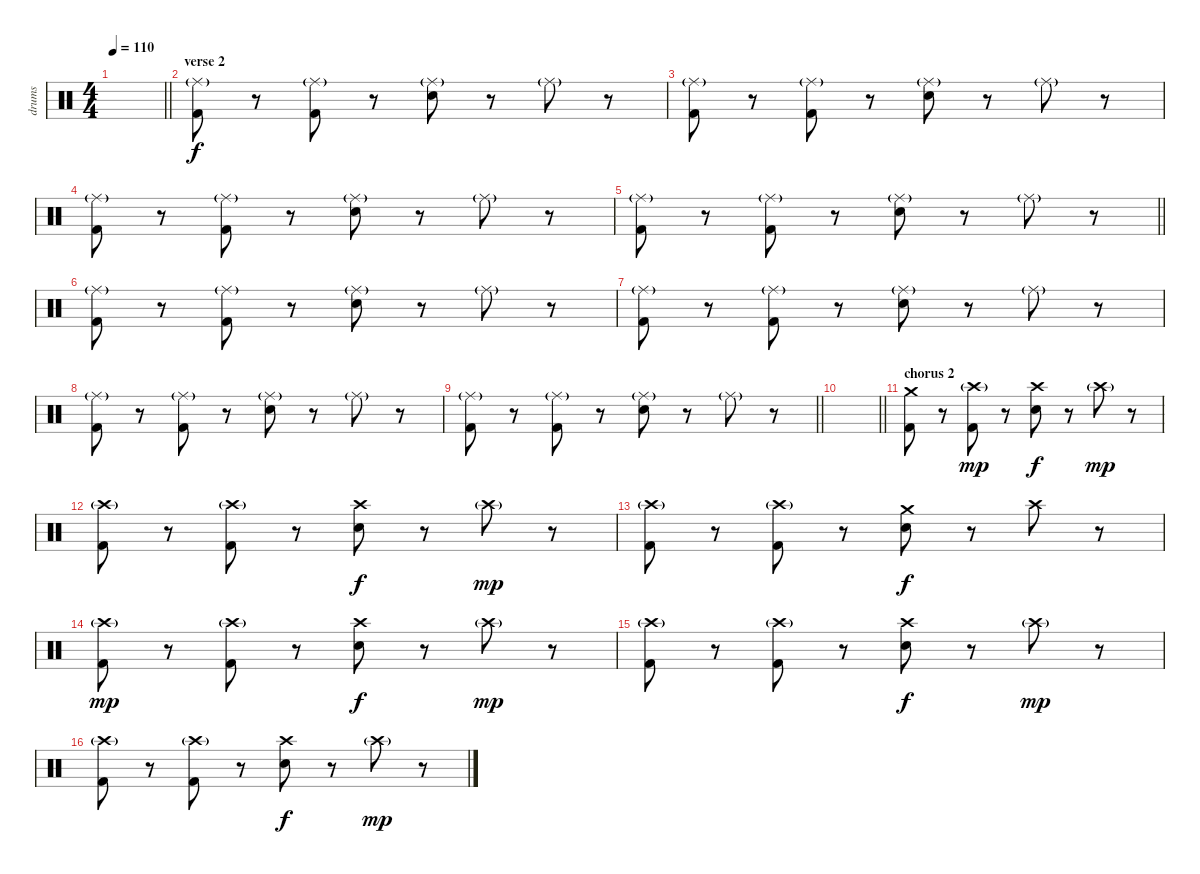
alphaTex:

\track ("drums" "drums") {instrument percussion}
\staff {score}
\articulation defaults
\ts (4 4)
\tempo 110
\clef neutral
\barLineRight lightlight
\ks c
|
\section ("" "verse 2")
("Kick (hit) 2" "Ride (middle)"{g}).8{volume 6} r.8 ("Kick (hit) 2" "Ride (middle)"{g}).8 r.8 ("Electric Snare (hit)" "Ride (middle)"{g}).8 r.8 "Ride (middle)"{g}.8 r.8 |
("Kick (hit) 2" "Ride (middle)"{g}).8 r.8 ("Kick (hit) 2" "Ride (middle)"{g}).8 r.8 ("Electric Snare (hit)" "Ride (middle)"{g}).8 r.8 "Ride (middle)"{g}.8 r.8 |
("Kick (hit) 2" "Ride (middle)"{g}).8 r.8 ("Kick (hit) 2" "Ride (middle)"{g}).8 r.8 ("Electric Snare (hit)" "Ride (middle)"{g}).8 r.8 "Ride (middle)"{g}.8 r.8 |
\barLineRight lightlight
("Kick (hit) 2" "Ride (middle)"{g}).8 r.8 ("Kick (hit) 2" "Ride (middle)"{g}).8 r.8 ("Electric Snare (hit)" "Ride (middle)"{g}).8 r.8 "Ride (middle)"{g}.8 r.8 |
("Kick (hit) 2" "Ride (middle)"{g}).8 r.8 ("Kick (hit) 2" "Ride (middle)"{g}).8 r.8 ("Electric Snare (hit)" "Ride (middle)"{g}).8 r.8 "Ride (middle)"{g}.8 r.8 |
("Kick (hit) 2" "Ride (middle)"{g}).8 r.8 ("Kick (hit) 2" "Ride (middle)"{g}).8 r.8 ("Electric Snare (hit)" "Ride (middle)"{g}).8 r.8 "Ride (middle)"{g}.8 r.8 |
("Kick (hit) 2" "Ride (middle)"{g}).8 r.8 ("Kick (hit) 2" "Ride (middle)"{g}).8 r.8 ("Electric Snare (hit)" "Ride (middle)"{g}).8 r.8 "Ride (middle)"{g}.8 r.8 |
\barLineRight lightlight
("Kick (hit) 2" "Ride (middle)"{g}).8 r.8 ("Kick (hit) 2" "Ride (middle)"{g}).8 r.8 ("Electric Snare (hit)" "Ride (middle)"{g}).8 r.8 "Ride (middle)"{g}.8 r.8 |
\barLineRight lightlight
|
\section ("" "chorus 2")
("Kick (hit) 2" "Crash medium (hit)").8{dy f volume 16} r.8 ("Kick (hit) 2" "Crash high (hit)"{g}).8{dy mp} r.8 ("Electric Snare (hit)" "Crash high (hit)").8{dy f} r.8 "Crash high (hit)"{g}.8{dy mp} r.8 |
("Kick (hit) 2" "Crash high (hit)"{g}).8 r.8 ("Kick (hit) 2" "Crash high (hit)"{g}).8 r.8 ("Electric Snare (hit)" "Crash high (hit)").8{dy f} r.8 "Crash high (hit)"{g}.8{dy mp} r.8 |
("Kick (hit) 2" "Crash high (hit)"{g}).8 r.8 ("Kick (hit) 2" "Crash high (hit)"{g}).8 r.8 ("Electric Snare (hit)" "Crash medium (hit)").8{dy f} r.8 "Crash high (hit)".8 r.8 |
("Kick (hit) 2" "Crash high (hit)"{g}).8{dy mp} r.8 ("Kick (hit) 2" "Crash high (hit)"{g}).8 r.8 ("Electric Snare (hit)" "Crash high (hit)").8{dy f} r.8 "Crash high (hit)"{g}.8{dy mp} r.8 |
("Kick (hit) 2" "Crash high (hit)"{g}).8 r.8 ("Kick (hit) 2" "Crash high (hit)"{g}).8 r.8 ("Electric Snare (hit)" "Crash high (hit)").8{dy f} r.8 "Crash high (hit)"{g}.8{dy mp} r.8 |
("Kick (hit) 2" "Crash high (hit)"{g}).8 r.8 ("Kick (hit) 2" "Crash high (hit)"{g}).8 r.8 ("Electric Snare (hit)" "Crash high (hit)").8{dy f} r.8 "Crash high (hit)"{g}.8{dy mp} r.8
